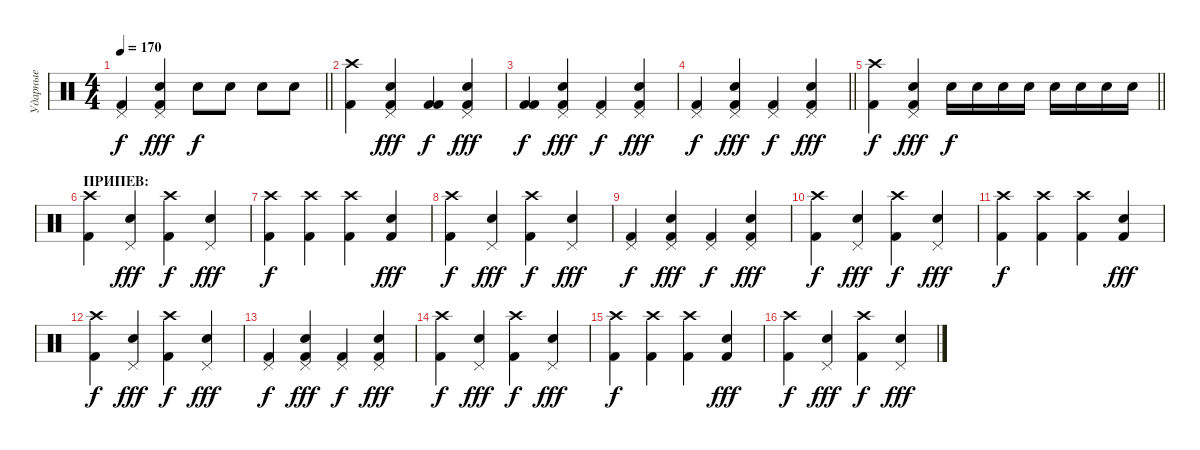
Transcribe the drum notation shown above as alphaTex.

\track ("Ударные" "Ударные") {instrument percussion}
\staff {score}
\articulation defaults
\ts (4 4)
\tempo 170
\clef neutral
\barLineRight lightlight
\ks c
("Pedal Hi-Hat (hit)" "Kick (hit) 2").4{dy f} ("Pedal Hi-Hat (hit)" "Snare (hit) 2" "Kick (hit) 2").4{dy fff} "Snare (hit) 2".8{dy f} "Snare (hit) 2".8 "Electric Snare (hit)".8 "Electric Snare (hit)".8 |
("Crash high (hit)" "Kick (hit) 2").4 ("Pedal Hi-Hat (hit)" "Snare (hit) 2" "Kick (hit) 2").4{dy fff} ("Kick (hit) 2" "Kick (hit) 2").4{dy f} ("Pedal Hi-Hat (hit)" "Snare (hit) 2" "Kick (hit) 2").4{dy fff} |
("Kick (hit) 2" "Kick (hit) 2").4{dy f} ("Pedal Hi-Hat (hit)" "Snare (hit) 2" "Kick (hit) 2").4{dy fff} ("Pedal Hi-Hat (hit)" "Kick (hit) 2").4{dy f} ("Pedal Hi-Hat (hit)" "Snare (hit) 2" "Kick (hit) 2").4{dy fff} |
\barLineRight lightlight
("Pedal Hi-Hat (hit)" "Kick (hit) 2").4{dy f} ("Pedal Hi-Hat (hit)" "Snare (hit) 2" "Kick (hit) 2").4{dy fff} ("Pedal Hi-Hat (hit)" "Kick (hit) 2").4{dy f} ("Pedal Hi-Hat (hit)" "Snare (hit) 2" "Kick (hit) 2").4{dy fff} |
\barLineRight lightlight
("Crash high (hit)" "Kick (hit) 2").4{dy f} ("Pedal Hi-Hat (hit)" "Snare (hit) 2" "Kick (hit) 2").4{dy fff} "Snare (hit) 2".16{dy f} "Snare (hit) 2".16 "Snare (hit) 2".16 "Snare (hit) 2".16 "Electric Snare (hit)".16 "Electric Snare (hit)".16 "Electric Snare (hit)".16 "Electric Snare (hit)".16 |
\section ("" "ПРИПЕВ:")
("Crash high (hit)" "Kick (hit) 2").4 ("Pedal Hi-Hat (hit)" "Snare (hit) 2").4{dy fff} ("Crash high (hit)" "Kick (hit) 2").4{dy f} ("Pedal Hi-Hat (hit)" "Snare (hit) 2").4{dy fff} |
("Crash high (hit)" "Kick (hit) 2").4{dy f} ("Crash high (hit)" "Kick (hit) 2").4 ("Crash high (hit)" "Kick (hit) 2").4 ("Snare (hit) 2" "Kick (hit) 2").4{dy fff} |
("Crash high (hit)" "Kick (hit) 2").4{dy f} ("Pedal Hi-Hat (hit)" "Snare (hit) 2").4{dy fff} ("Crash high (hit)" "Kick (hit) 2").4{dy f} ("Pedal Hi-Hat (hit)" "Snare (hit) 2").4{dy fff} |
("Pedal Hi-Hat (hit)" "Kick (hit) 2").4{dy f} ("Pedal Hi-Hat (hit)" "Snare (hit) 2" "Kick (hit) 2").4{dy fff} ("Pedal Hi-Hat (hit)" "Kick (hit) 2").4{dy f} ("Pedal Hi-Hat (hit)" "Snare (hit) 2" "Kick (hit) 2").4{dy fff} |
("Crash high (hit)" "Kick (hit) 2").4{dy f} ("Pedal Hi-Hat (hit)" "Snare (hit) 2").4{dy fff} ("Crash high (hit)" "Kick (hit) 2").4{dy f} ("Pedal Hi-Hat (hit)" "Snare (hit) 2").4{dy fff} |
("Crash high (hit)" "Kick (hit) 2").4{dy f} ("Crash high (hit)" "Kick (hit) 2").4 ("Crash high (hit)" "Kick (hit) 2").4 ("Snare (hit) 2" "Kick (hit) 2").4{dy fff} |
("Crash high (hit)" "Kick (hit) 2").4{dy f} ("Pedal Hi-Hat (hit)" "Snare (hit) 2").4{dy fff} ("Crash high (hit)" "Kick (hit) 2").4{dy f} ("Pedal Hi-Hat (hit)" "Snare (hit) 2").4{dy fff} |
("Pedal Hi-Hat (hit)" "Kick (hit) 2").4{dy f} ("Pedal Hi-Hat (hit)" "Snare (hit) 2" "Kick (hit) 2").4{dy fff} ("Pedal Hi-Hat (hit)" "Kick (hit) 2").4{dy f} ("Pedal Hi-Hat (hit)" "Snare (hit) 2" "Kick (hit) 2").4{dy fff} |
("Crash high (hit)" "Kick (hit) 2").4{dy f} ("Pedal Hi-Hat (hit)" "Snare (hit) 2").4{dy fff} ("Crash high (hit)" "Kick (hit) 2").4{dy f} ("Pedal Hi-Hat (hit)" "Snare (hit) 2").4{dy fff} |
("Crash high (hit)" "Kick (hit) 2").4{dy f} ("Crash high (hit)" "Kick (hit) 2").4 ("Crash high (hit)" "Kick (hit) 2").4 ("Snare (hit) 2" "Kick (hit) 2").4{dy fff} |
("Crash high (hit)" "Kick (hit) 2").4{dy f} ("Pedal Hi-Hat (hit)" "Snare (hit) 2").4{dy fff} ("Crash high (hit)" "Kick (hit) 2").4{dy f} ("Pedal Hi-Hat (hit)" "Snare (hit) 2").4{dy fff}
